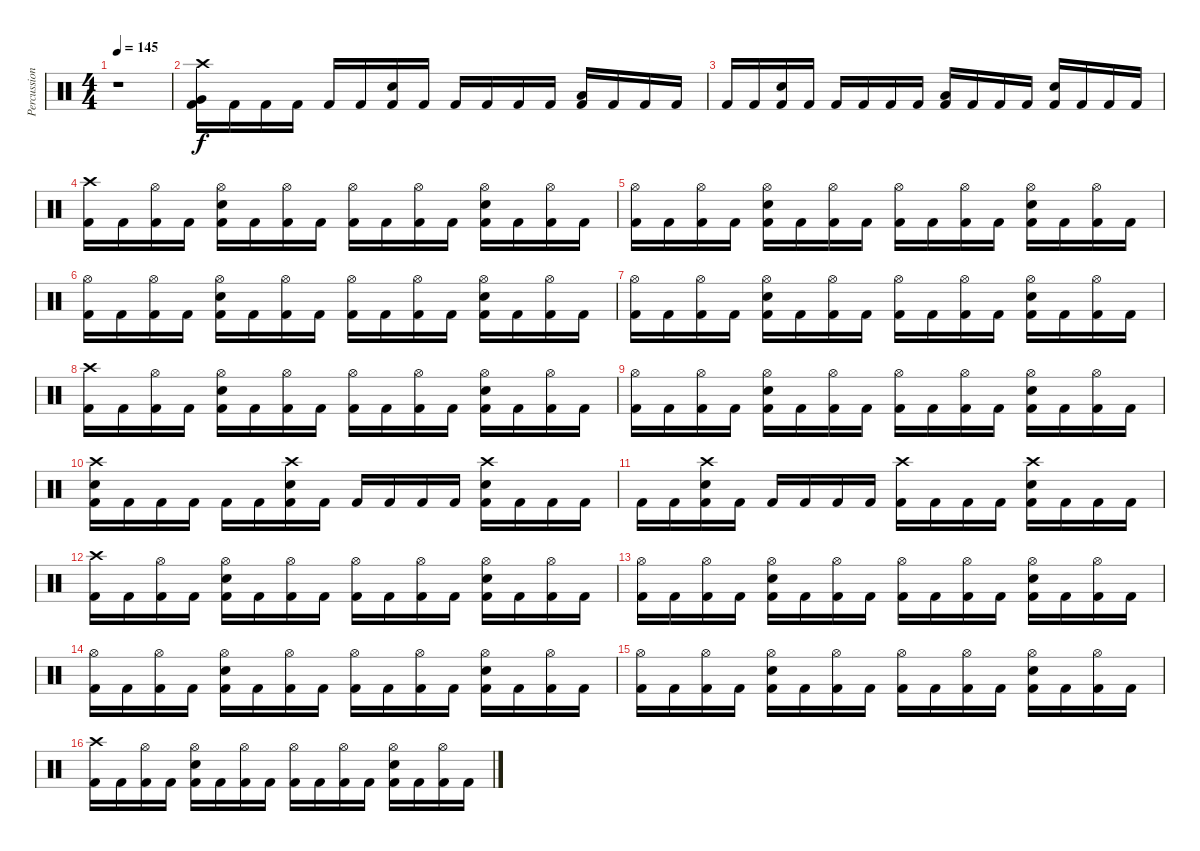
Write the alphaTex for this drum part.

\track ("Percussion" "Percussion") {instrument percussion}
\staff {score}
\articulation defaults
\ts (4 4)
\tempo 145
\clef neutral
\ks c
r.1{dy f} |
("Crash high (hit)" "Very Low Tom (hit)" "Kick (hit) 2").16 "Kick (hit) 2".16 "Kick (hit) 2".16 "Kick (hit) 2".16 "Kick (hit) 2".16 "Kick (hit) 2".16 ("Snare (hit) 2" "Kick (hit) 2").16 "Kick (hit) 2".16 "Kick (hit) 2".16 "Kick (hit) 2".16 "Kick (hit) 2".16 "Kick (hit) 2".16 ("Low Floor Tom (hit)" "Kick (hit) 2").16 "Kick (hit) 2".16 "Kick (hit) 2".16 "Kick (hit) 2".16 |
"Kick (hit) 2".16 "Kick (hit) 2".16 ("Snare (hit) 2" "Kick (hit) 2").16 "Kick (hit) 2".16 "Kick (hit) 2".16 "Kick (hit) 2".16 "Kick (hit) 2".16 "Kick (hit) 2".16 ("Low Floor Tom (hit)" "Kick (hit) 2").16 "Kick (hit) 2".16 "Kick (hit) 2".16 "Kick (hit) 2".16 ("Snare (hit) 2" "Kick (hit) 2").16 "Kick (hit) 2".16 "Kick (hit) 2".16 "Kick (hit) 2".16 |
("Crash high (hit)" "Kick (hit) 2").16 "Kick (hit) 2".16 ("Hi-Hat (open)" "Kick (hit) 2").16 "Kick (hit) 2".16 ("Hi-Hat (open)" "Snare (hit) 2" "Kick (hit) 2").16 "Kick (hit) 2".16 ("Hi-Hat (open)" "Kick (hit) 2").16 "Kick (hit) 2".16 ("Hi-Hat (open)" "Kick (hit) 2").16 "Kick (hit) 2".16 ("Hi-Hat (open)" "Kick (hit) 2").16 "Kick (hit) 2".16 ("Hi-Hat (open)" "Snare (hit) 2" "Kick (hit) 2").16 "Kick (hit) 2".16 ("Hi-Hat (open)" "Kick (hit) 2").16 "Kick (hit) 2".16 |
("Hi-Hat (open)" "Kick (hit) 2").16 "Kick (hit) 2".16 ("Hi-Hat (open)" "Kick (hit) 2").16 "Kick (hit) 2".16 ("Hi-Hat (open)" "Snare (hit) 2" "Kick (hit) 2").16 "Kick (hit) 2".16 ("Hi-Hat (open)" "Kick (hit) 2").16 "Kick (hit) 2".16 ("Hi-Hat (open)" "Kick (hit) 2").16 "Kick (hit) 2".16 ("Hi-Hat (open)" "Kick (hit) 2").16 "Kick (hit) 2".16 ("Hi-Hat (open)" "Snare (hit) 2" "Kick (hit) 2").16 "Kick (hit) 2".16 ("Hi-Hat (open)" "Kick (hit) 2").16 "Kick (hit) 2".16 |
("Hi-Hat (open)" "Kick (hit) 2").16 "Kick (hit) 2".16 ("Hi-Hat (open)" "Kick (hit) 2").16 "Kick (hit) 2".16 ("Hi-Hat (open)" "Snare (hit) 2" "Kick (hit) 2").16 "Kick (hit) 2".16 ("Hi-Hat (open)" "Kick (hit) 2").16 "Kick (hit) 2".16 ("Hi-Hat (open)" "Kick (hit) 2").16 "Kick (hit) 2".16 ("Hi-Hat (open)" "Kick (hit) 2").16 "Kick (hit) 2".16 ("Hi-Hat (open)" "Snare (hit) 2" "Kick (hit) 2").16 "Kick (hit) 2".16 ("Hi-Hat (open)" "Kick (hit) 2").16 "Kick (hit) 2".16 |
("Hi-Hat (open)" "Kick (hit) 2").16 "Kick (hit) 2".16 ("Hi-Hat (open)" "Kick (hit) 2").16 "Kick (hit) 2".16 ("Hi-Hat (open)" "Snare (hit) 2" "Kick (hit) 2").16 "Kick (hit) 2".16 ("Hi-Hat (open)" "Kick (hit) 2").16 "Kick (hit) 2".16 ("Hi-Hat (open)" "Kick (hit) 2").16 "Kick (hit) 2".16 ("Hi-Hat (open)" "Kick (hit) 2").16 "Kick (hit) 2".16 ("Hi-Hat (open)" "Snare (hit) 2" "Kick (hit) 2").16 "Kick (hit) 2".16 ("Hi-Hat (open)" "Kick (hit) 2").16 "Kick (hit) 2".16 |
("Crash high (hit)" "Kick (hit) 2").16 "Kick (hit) 2".16 ("Hi-Hat (open)" "Kick (hit) 2").16 "Kick (hit) 2".16 ("Hi-Hat (open)" "Snare (hit) 2" "Kick (hit) 2").16 "Kick (hit) 2".16 ("Hi-Hat (open)" "Kick (hit) 2").16 "Kick (hit) 2".16 ("Hi-Hat (open)" "Kick (hit) 2").16 "Kick (hit) 2".16 ("Hi-Hat (open)" "Kick (hit) 2").16 "Kick (hit) 2".16 ("Hi-Hat (open)" "Snare (hit) 2" "Kick (hit) 2").16 "Kick (hit) 2".16 ("Hi-Hat (open)" "Kick (hit) 2").16 "Kick (hit) 2".16 |
("Hi-Hat (open)" "Kick (hit) 2").16 "Kick (hit) 2".16 ("Hi-Hat (open)" "Kick (hit) 2").16 "Kick (hit) 2".16 ("Hi-Hat (open)" "Snare (hit) 2" "Kick (hit) 2").16 "Kick (hit) 2".16 ("Hi-Hat (open)" "Kick (hit) 2").16 "Kick (hit) 2".16 ("Hi-Hat (open)" "Kick (hit) 2").16 "Kick (hit) 2".16 ("Hi-Hat (open)" "Kick (hit) 2").16 "Kick (hit) 2".16 ("Hi-Hat (open)" "Snare (hit) 2" "Kick (hit) 2").16 "Kick (hit) 2".16 ("Hi-Hat (open)" "Kick (hit) 2").16 "Kick (hit) 2".16 |
("Crash high (hit)" "Snare (hit) 2" "Kick (hit) 2").16 "Kick (hit) 2".16 "Kick (hit) 2".16 "Kick (hit) 2".16 "Kick (hit) 2".16 "Kick (hit) 2".16 ("Crash high (hit)" "Snare (hit) 2" "Kick (hit) 2").16 "Kick (hit) 2".16 "Kick (hit) 2".16 "Kick (hit) 2".16 "Kick (hit) 2".16 "Kick (hit) 2".16 ("Crash high (hit)" "Snare (hit) 2" "Kick (hit) 2").16 "Kick (hit) 2".16 "Kick (hit) 2".16 "Kick (hit) 2".16 |
"Kick (hit) 2".16 "Kick (hit) 2".16 ("Crash high (hit)" "Snare (hit) 2" "Kick (hit) 2").16 "Kick (hit) 2".16 "Kick (hit) 2".16 "Kick (hit) 2".16 "Kick (hit) 2".16 "Kick (hit) 2".16 ("Crash high (hit)" "Kick (hit) 2").16 "Kick (hit) 2".16 "Kick (hit) 2".16 "Kick (hit) 2".16 ("Crash high (hit)" "Snare (hit) 2" "Kick (hit) 2").16 "Kick (hit) 2".16 "Kick (hit) 2".16 "Kick (hit) 2".16 |
("Crash high (hit)" "Kick (hit) 2").16 "Kick (hit) 2".16 ("Hi-Hat (open)" "Kick (hit) 2").16 "Kick (hit) 2".16 ("Hi-Hat (open)" "Snare (hit) 2" "Kick (hit) 2").16 "Kick (hit) 2".16 ("Hi-Hat (open)" "Kick (hit) 2").16 "Kick (hit) 2".16 ("Hi-Hat (open)" "Kick (hit) 2").16 "Kick (hit) 2".16 ("Hi-Hat (open)" "Kick (hit) 2").16 "Kick (hit) 2".16 ("Hi-Hat (open)" "Snare (hit) 2" "Kick (hit) 2").16 "Kick (hit) 2".16 ("Hi-Hat (open)" "Kick (hit) 2").16 "Kick (hit) 2".16 |
("Hi-Hat (open)" "Kick (hit) 2").16 "Kick (hit) 2".16 ("Hi-Hat (open)" "Kick (hit) 2").16 "Kick (hit) 2".16 ("Hi-Hat (open)" "Snare (hit) 2" "Kick (hit) 2").16 "Kick (hit) 2".16 ("Hi-Hat (open)" "Kick (hit) 2").16 "Kick (hit) 2".16 ("Hi-Hat (open)" "Kick (hit) 2").16 "Kick (hit) 2".16 ("Hi-Hat (open)" "Kick (hit) 2").16 "Kick (hit) 2".16 ("Hi-Hat (open)" "Snare (hit) 2" "Kick (hit) 2").16 "Kick (hit) 2".16 ("Hi-Hat (open)" "Kick (hit) 2").16 "Kick (hit) 2".16 |
("Hi-Hat (open)" "Kick (hit) 2").16 "Kick (hit) 2".16 ("Hi-Hat (open)" "Kick (hit) 2").16 "Kick (hit) 2".16 ("Hi-Hat (open)" "Snare (hit) 2" "Kick (hit) 2").16 "Kick (hit) 2".16 ("Hi-Hat (open)" "Kick (hit) 2").16 "Kick (hit) 2".16 ("Hi-Hat (open)" "Kick (hit) 2").16 "Kick (hit) 2".16 ("Hi-Hat (open)" "Kick (hit) 2").16 "Kick (hit) 2".16 ("Hi-Hat (open)" "Snare (hit) 2" "Kick (hit) 2").16 "Kick (hit) 2".16 ("Hi-Hat (open)" "Kick (hit) 2").16 "Kick (hit) 2".16 |
("Hi-Hat (open)" "Kick (hit) 2").16 "Kick (hit) 2".16 ("Hi-Hat (open)" "Kick (hit) 2").16 "Kick (hit) 2".16 ("Hi-Hat (open)" "Snare (hit) 2" "Kick (hit) 2").16 "Kick (hit) 2".16 ("Hi-Hat (open)" "Kick (hit) 2").16 "Kick (hit) 2".16 ("Hi-Hat (open)" "Kick (hit) 2").16 "Kick (hit) 2".16 ("Hi-Hat (open)" "Kick (hit) 2").16 "Kick (hit) 2".16 ("Hi-Hat (open)" "Snare (hit) 2" "Kick (hit) 2").16 "Kick (hit) 2".16 ("Hi-Hat (open)" "Kick (hit) 2").16 "Kick (hit) 2".16 |
("Crash high (hit)" "Kick (hit) 2").16 "Kick (hit) 2".16 ("Hi-Hat (open)" "Kick (hit) 2").16 "Kick (hit) 2".16 ("Hi-Hat (open)" "Snare (hit) 2" "Kick (hit) 2").16 "Kick (hit) 2".16 ("Hi-Hat (open)" "Kick (hit) 2").16 "Kick (hit) 2".16 ("Hi-Hat (open)" "Kick (hit) 2").16 "Kick (hit) 2".16 ("Hi-Hat (open)" "Kick (hit) 2").16 "Kick (hit) 2".16 ("Hi-Hat (open)" "Snare (hit) 2" "Kick (hit) 2").16 "Kick (hit) 2".16 ("Hi-Hat (open)" "Kick (hit) 2").16 "Kick (hit) 2".16
